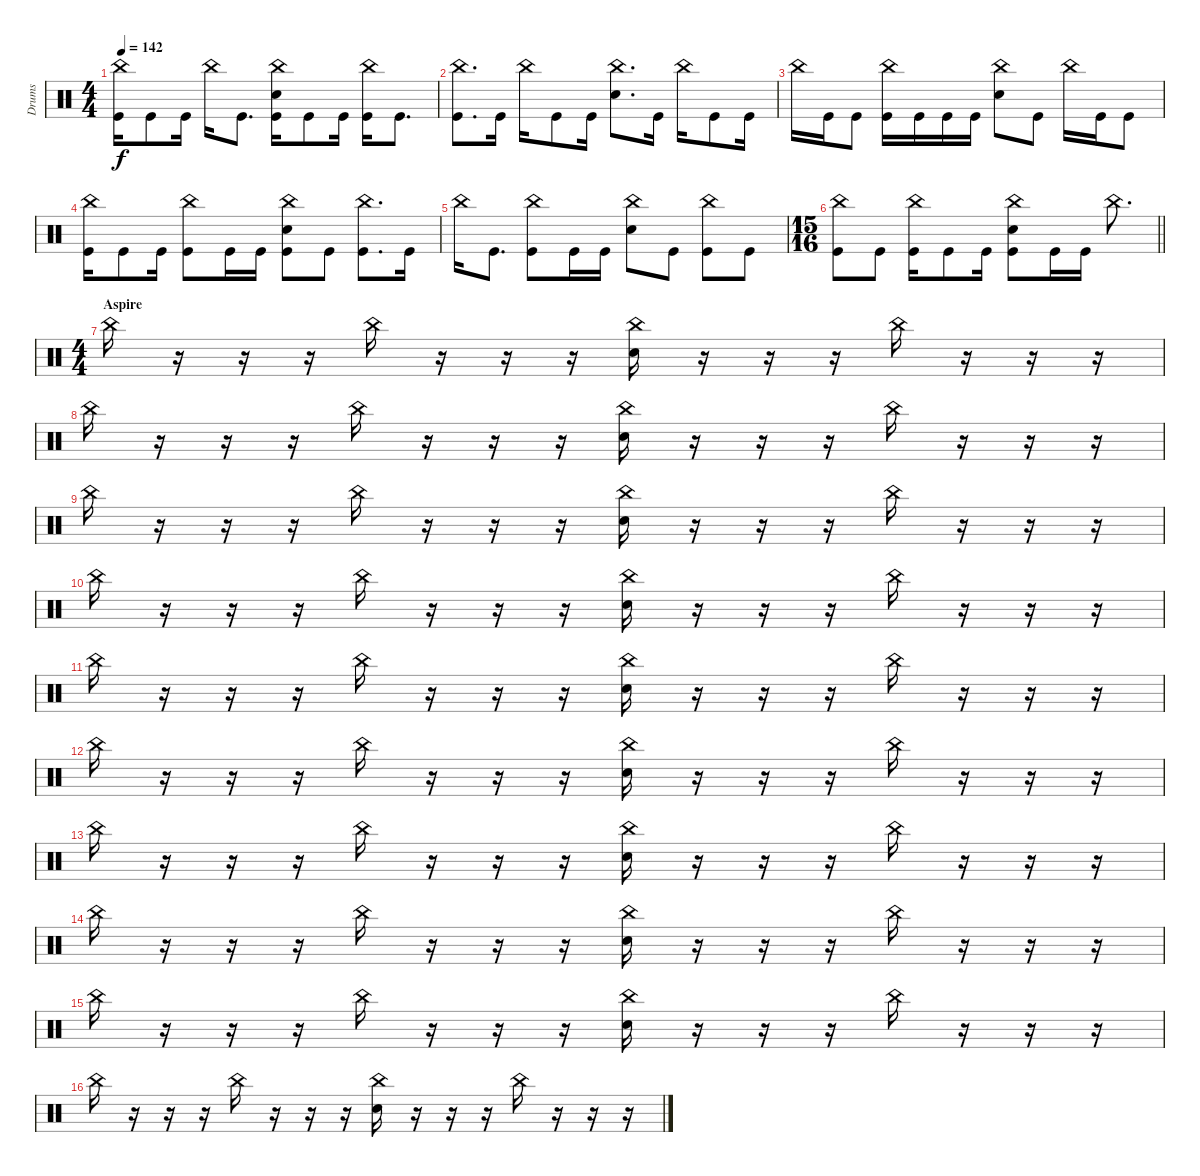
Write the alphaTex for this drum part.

\track ("Drums" "Drums") {instrument percussion}
\staff
\articulation defaults
\ts (4 4)
\tempo 142
\clef neutral
\ks c
("China (hit)" "Kick (hit)").16{dy f} "Kick (hit)".8 "Kick (hit)".16 "China (hit)".16 "Kick (hit)".8{d} ("China (hit)" "Electric Snare (hit)" "Kick (hit)").16 "Kick (hit)".8 "Kick (hit)".16 ("China (hit)" "Kick (hit)").16 "Kick (hit)".8{d} |
("China (hit)" "Kick (hit)").8{d} "Kick (hit)".16 "China (hit)".16 "Kick (hit)".8 "Kick (hit)".16 ("China (hit)" "Electric Snare (hit)").8{d} "Kick (hit)".16 "China (hit)".16 "Kick (hit)".8 "Kick (hit)".16 |
"China (hit)".16 "Kick (hit)".16 "Kick (hit)".8 ("China (hit)" "Kick (hit)").16 "Kick (hit)".16 "Kick (hit)".16 "Kick (hit)".16 ("China (hit)" "Electric Snare (hit)").8 "Kick (hit)".8 "China (hit)".16 "Kick (hit)".16 "Kick (hit)".8 |
("China (hit)" "Kick (hit)").16 "Kick (hit)".8 "Kick (hit)".16 ("China (hit)" "Kick (hit)").8 "Kick (hit)".16 "Kick (hit)".16 ("China (hit)" "Electric Snare (hit)" "Kick (hit)").8 "Kick (hit)".8 ("China (hit)" "Kick (hit)").8{d} "Kick (hit)".16 |
"China (hit)".16 "Kick (hit)".8{d} ("China (hit)" "Kick (hit)").8 "Kick (hit)".16 "Kick (hit)".16 ("China (hit)" "Electric Snare (hit)").8 "Kick (hit)".8 ("China (hit)" "Kick (hit)").8 "Kick (hit)".8 |
\ts (15 16)
\barLineRight lightlight
("China (hit)" "Kick (hit)").8 "Kick (hit)".8 ("China (hit)" "Kick (hit)").16 "Kick (hit)".8 "Kick (hit)".16 ("China (hit)" "Electric Snare (hit)" "Kick (hit)").8 "Kick (hit)".16 "Kick (hit)".16 "China (hit)".8{d} |
\ts (4 4)
\section ("" "Aspire")
"China (hit)".16 r.16 r.16 r.16 "China (hit)".16 r.16 r.16 r.16 ("China (hit)" "Electric Snare (hit)").16 r.16 r.16 r.16 "China (hit)".16 r.16 r.16 r.16 |
"China (hit)".16 r.16 r.16 r.16 "China (hit)".16 r.16 r.16 r.16 ("China (hit)" "Electric Snare (hit)").16 r.16 r.16 r.16 "China (hit)".16 r.16 r.16 r.16 |
"China (hit)".16 r.16 r.16 r.16 "China (hit)".16 r.16 r.16 r.16 ("China (hit)" "Electric Snare (hit)").16 r.16 r.16 r.16 "China (hit)".16 r.16 r.16 r.16 |
"China (hit)".16 r.16 r.16 r.16 "China (hit)".16 r.16 r.16 r.16 ("China (hit)" "Electric Snare (hit)").16 r.16 r.16 r.16 "China (hit)".16 r.16 r.16 r.16 |
"China (hit)".16 r.16 r.16 r.16 "China (hit)".16 r.16 r.16 r.16 ("China (hit)" "Electric Snare (hit)").16 r.16 r.16 r.16 "China (hit)".16 r.16 r.16 r.16 |
"China (hit)".16 r.16 r.16 r.16 "China (hit)".16 r.16 r.16 r.16 ("China (hit)" "Electric Snare (hit)").16 r.16 r.16 r.16 "China (hit)".16 r.16 r.16 r.16 |
"China (hit)".16 r.16 r.16 r.16 "China (hit)".16 r.16 r.16 r.16 ("China (hit)" "Electric Snare (hit)").16 r.16 r.16 r.16 "China (hit)".16 r.16 r.16 r.16 |
"China (hit)".16 r.16 r.16 r.16 "China (hit)".16 r.16 r.16 r.16 ("China (hit)" "Electric Snare (hit)").16 r.16 r.16 r.16 "China (hit)".16 r.16 r.16 r.16 |
"China (hit)".16 r.16 r.16 r.16 "China (hit)".16 r.16 r.16 r.16 ("China (hit)" "Electric Snare (hit)").16 r.16 r.16 r.16 "China (hit)".16 r.16 r.16 r.16 |
"China (hit)".16 r.16 r.16 r.16 "China (hit)".16 r.16 r.16 r.16 ("China (hit)" "Electric Snare (hit)").16 r.16 r.16 r.16 "China (hit)".16 r.16 r.16 r.16
